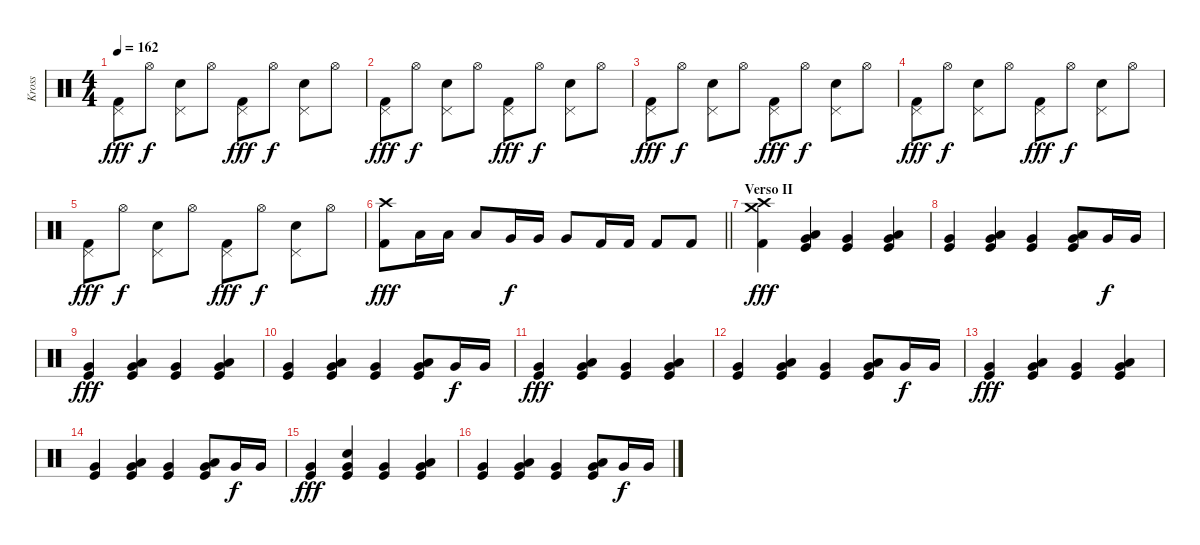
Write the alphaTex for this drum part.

\track ("Kross" "Kross") {instrument percussion}
\staff {score}
\articulation defaults
\ts (4 4)
\tempo 162
\clef neutral
\ks c
("Pedal Hi-Hat (hit)" "Kick (hit) 2").8{dy fff} "Hi-Hat (open)".8{dy f} ("Pedal Hi-Hat (hit)" "Electric Snare (hit)").8 "Hi-Hat (open)".8 ("Pedal Hi-Hat (hit)" "Kick (hit) 2").8{dy fff} "Hi-Hat (open)".8{dy f} ("Pedal Hi-Hat (hit)" "Electric Snare (hit)").8 "Hi-Hat (open)".8 |
("Pedal Hi-Hat (hit)" "Kick (hit) 2").8{dy fff} "Hi-Hat (open)".8{dy f} ("Pedal Hi-Hat (hit)" "Electric Snare (hit)").8 "Hi-Hat (open)".8 ("Pedal Hi-Hat (hit)" "Kick (hit) 2").8{dy fff} "Hi-Hat (open)".8{dy f} ("Pedal Hi-Hat (hit)" "Electric Snare (hit)").8 "Hi-Hat (open)".8 |
("Pedal Hi-Hat (hit)" "Kick (hit) 2").8{dy fff} "Hi-Hat (open)".8{dy f} ("Pedal Hi-Hat (hit)" "Electric Snare (hit)").8 "Hi-Hat (open)".8 ("Pedal Hi-Hat (hit)" "Kick (hit) 2").8{dy fff} "Hi-Hat (open)".8{dy f} ("Pedal Hi-Hat (hit)" "Electric Snare (hit)").8 "Hi-Hat (open)".8 |
("Pedal Hi-Hat (hit)" "Kick (hit) 2").8{dy fff} "Hi-Hat (open)".8{dy f} ("Pedal Hi-Hat (hit)" "Electric Snare (hit)").8 "Hi-Hat (open)".8 ("Pedal Hi-Hat (hit)" "Kick (hit) 2").8{dy fff} "Hi-Hat (open)".8{dy f} ("Pedal Hi-Hat (hit)" "Electric Snare (hit)").8 "Hi-Hat (open)".8 |
("Pedal Hi-Hat (hit)" "Kick (hit) 2").8{dy fff} "Hi-Hat (open)".8{dy f} ("Pedal Hi-Hat (hit)" "Electric Snare (hit)").8 "Hi-Hat (open)".8 ("Pedal Hi-Hat (hit)" "Kick (hit) 2").8{dy fff} "Hi-Hat (open)".8{dy f} ("Pedal Hi-Hat (hit)" "Electric Snare (hit)").8 "Hi-Hat (open)".8 |
\barLineRight lightlight
("Crash high (hit)" "Kick (hit) 2").8{dy fff} "Low Tom (hit)".16 "Low Tom (hit)".16 "Low Tom (hit)".8 "Very Low Tom (hit)".16{dy f} "Very Low Tom (hit)".16 "Very Low Tom (hit)".8 "Kick (hit) 2".16 "Kick (hit) 2".16 "Kick (hit) 2".8 "Kick (hit) 2".8 |
\section ("" "Verso II")
("Crash high (hit)" "Crash medium (hit)" "Kick (hit) 2").4{dy fff} ("Low Tom (hit)" "Very Low Tom (hit)" "Kick (hit)").4 ("Very Low Tom (hit)" "Kick (hit)").4 ("Low Tom (hit)" "Very Low Tom (hit)" "Kick (hit)").4 |
("Very Low Tom (hit)" "Kick (hit)").4 ("Low Tom (hit)" "Very Low Tom (hit)" "Kick (hit)").4 ("Very Low Tom (hit)" "Kick (hit)").4 ("Low Tom (hit)" "Very Low Tom (hit)" "Kick (hit)").8 "Very Low Tom (hit)".16{dy f} "Very Low Tom (hit)".16 |
("Very Low Tom (hit)" "Kick (hit)").4{dy fff} ("Low Tom (hit)" "Very Low Tom (hit)" "Kick (hit)").4 ("Very Low Tom (hit)" "Kick (hit)").4 ("Low Tom (hit)" "Very Low Tom (hit)" "Kick (hit)").4 |
("Very Low Tom (hit)" "Kick (hit)").4 ("Low Tom (hit)" "Very Low Tom (hit)" "Kick (hit)").4 ("Very Low Tom (hit)" "Kick (hit)").4 ("Low Tom (hit)" "Very Low Tom (hit)" "Kick (hit)").8 "Very Low Tom (hit)".16{dy f} "Very Low Tom (hit)".16 |
("Very Low Tom (hit)" "Kick (hit)").4{dy fff} ("Low Tom (hit)" "Very Low Tom (hit)" "Kick (hit)").4 ("Very Low Tom (hit)" "Kick (hit)").4 ("Low Tom (hit)" "Very Low Tom (hit)" "Kick (hit)").4 |
("Very Low Tom (hit)" "Kick (hit)").4 ("Low Tom (hit)" "Very Low Tom (hit)" "Kick (hit)").4 ("Very Low Tom (hit)" "Kick (hit)").4 ("Low Tom (hit)" "Very Low Tom (hit)" "Kick (hit)").8 "Very Low Tom (hit)".16{dy f} "Very Low Tom (hit)".16 |
("Very Low Tom (hit)" "Kick (hit)").4{dy fff} ("Low Tom (hit)" "Very Low Tom (hit)" "Kick (hit)").4 ("Very Low Tom (hit)" "Kick (hit)").4 ("Low Tom (hit)" "Very Low Tom (hit)" "Kick (hit)").4 |
("Very Low Tom (hit)" "Kick (hit)").4 ("Low Tom (hit)" "Very Low Tom (hit)" "Kick (hit)").4 ("Very Low Tom (hit)" "Kick (hit)").4 ("Low Tom (hit)" "Very Low Tom (hit)" "Kick (hit)").8 "Very Low Tom (hit)".16{dy f} "Very Low Tom (hit)".16 |
("Very Low Tom (hit)" "Kick (hit)").4{dy fff} ("Snare (hit) 2" "Very Low Tom (hit)" "Kick (hit)").4 ("Very Low Tom (hit)" "Kick (hit)").4 ("Low Tom (hit)" "Very Low Tom (hit)" "Kick (hit)").4 |
("Very Low Tom (hit)" "Kick (hit)").4 ("Low Tom (hit)" "Very Low Tom (hit)" "Kick (hit)").4 ("Very Low Tom (hit)" "Kick (hit)").4 ("Low Tom (hit)" "Very Low Tom (hit)" "Kick (hit)").8 "Very Low Tom (hit)".16{dy f} "Very Low Tom (hit)".16
